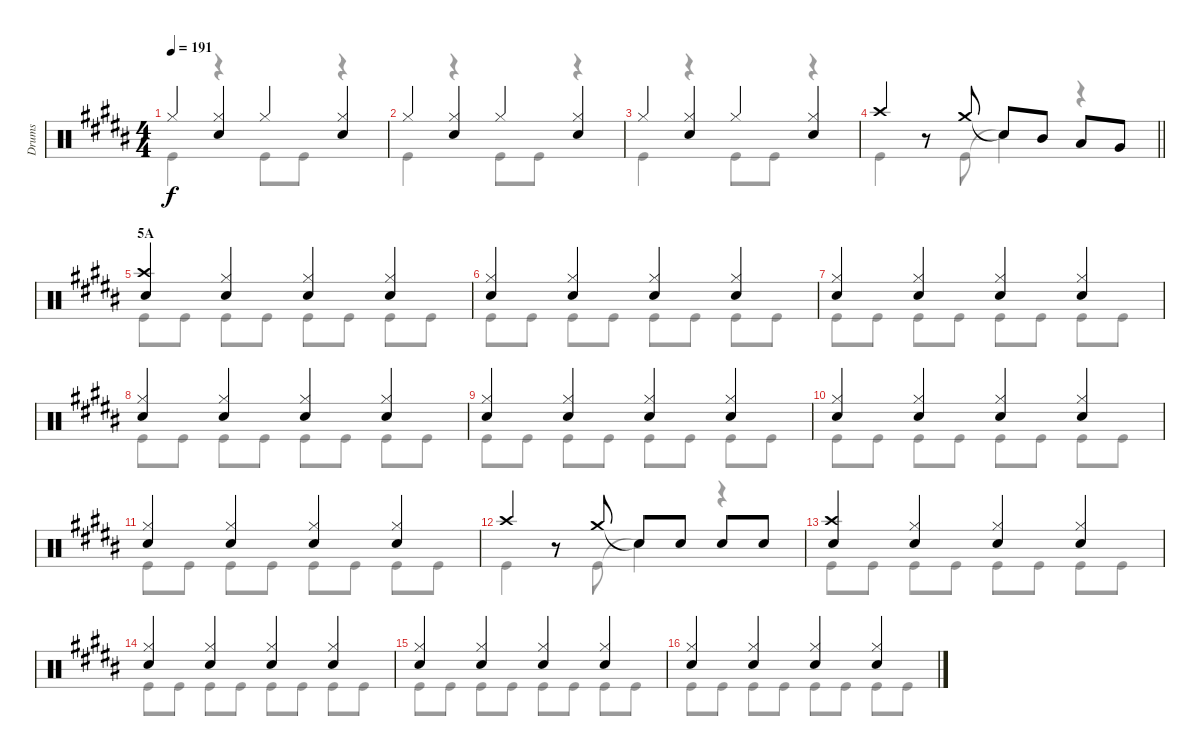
\track ("Drums" "Drums") {instrument percussion}
\staff {score}
\articulation defaults
\voice
\ts (4 4)
\tempo 191
\clef neutral
\ks b "Hi-Hat (closed)".4{dy f}
("Hi-Hat (closed)" "Snare (hit) 2").4 "Hi-Hat (closed)".4 ("Hi-Hat (closed)" "Snare (hit) 2").4 |
"Hi-Hat (closed)".4 ("Hi-Hat (closed)" "Snare (hit) 2").4 "Hi-Hat (closed)".4 ("Hi-Hat (closed)" "Snare (hit) 2").4 |
"Hi-Hat (closed)".4 ("Hi-Hat (closed)" "Snare (hit) 2").4 "Hi-Hat (closed)".4 ("Hi-Hat (closed)" "Snare (hit) 2").4 |
\barLineRight lightlight "Crash high (hit)".4
r.8 "Crash medium (hit)".8 "Snare (hit)"{t}.8 "Mid Tom (hit)".8 "Low Tom (hit)".8 "Very Low Tom (hit)".8 |
\section ("" "5A")
("Crash high (hit)" "Snare (hit) 2").4 ("Hi-Hat (closed)" "Snare (hit) 2").4 ("Hi-Hat (closed)" "Snare (hit) 2").4 ("Hi-Hat (closed)" "Snare (hit) 2").4 |
("Hi-Hat (closed)" "Snare (hit) 2").4 ("Hi-Hat (closed)" "Snare (hit) 2").4 ("Hi-Hat (closed)" "Snare (hit) 2").4 ("Hi-Hat (closed)" "Snare (hit) 2").4 |
("Hi-Hat (closed)" "Snare (hit) 2").4 ("Hi-Hat (closed)" "Snare (hit) 2").4 ("Hi-Hat (closed)" "Snare (hit) 2").4 ("Hi-Hat (closed)" "Snare (hit) 2").4 |
("Hi-Hat (closed)" "Snare (hit) 2").4 ("Hi-Hat (closed)" "Snare (hit) 2").4 ("Hi-Hat (closed)" "Snare (hit) 2").4 ("Hi-Hat (closed)" "Snare (hit) 2").4 |
("Hi-Hat (closed)" "Snare (hit) 2").4 ("Hi-Hat (closed)" "Snare (hit) 2").4 ("Hi-Hat (closed)" "Snare (hit) 2").4 ("Hi-Hat (closed)" "Snare (hit) 2").4 |
("Hi-Hat (closed)" "Snare (hit) 2").4 ("Hi-Hat (closed)" "Snare (hit) 2").4 ("Hi-Hat (closed)" "Snare (hit) 2").4 ("Hi-Hat (closed)" "Snare (hit) 2").4 |
("Hi-Hat (closed)" "Snare (hit) 2").4 ("Hi-Hat (closed)" "Snare (hit) 2").4 ("Hi-Hat (closed)" "Snare (hit) 2").4 ("Hi-Hat (closed)" "Snare (hit) 2").4 |
"Crash high (hit)".4 r.8 "Crash medium (hit)".8 "Snare (hit)"{t}.8 "Snare (hit) 2".8 "Snare (hit) 2".8 "Snare (hit) 2".8 |
("Crash high (hit)" "Snare (hit) 2").4 ("Hi-Hat (closed)" "Snare (hit) 2").4 ("Hi-Hat (closed)" "Snare (hit) 2").4 ("Hi-Hat (closed)" "Snare (hit) 2").4 |
("Hi-Hat (closed)" "Snare (hit) 2").4 ("Hi-Hat (closed)" "Snare (hit) 2").4 ("Hi-Hat (closed)" "Snare (hit) 2").4 ("Hi-Hat (closed)" "Snare (hit) 2").4 |
("Hi-Hat (closed)" "Snare (hit) 2").4 ("Hi-Hat (closed)" "Snare (hit) 2").4 ("Hi-Hat (closed)" "Snare (hit) 2").4 ("Hi-Hat (closed)" "Snare (hit) 2").4 |
("Hi-Hat (closed)" "Snare (hit) 2").4 ("Hi-Hat (closed)" "Snare (hit) 2").4 ("Hi-Hat (closed)" "Snare (hit) 2").4 ("Hi-Hat (closed)" "Snare (hit) 2").4
\voice
\clef neutral
\ottava regular
\simile none
\ks b "Kick (hit)".4{dy f}
r.4 "Kick (hit)".8 "Kick (hit)".8 r.4 |
"Kick (hit)".4 r.4 "Kick (hit)".8 "Kick (hit)".8 r.4 |
"Kick (hit)".4 r.4 "Kick (hit)".8 "Kick (hit)".8 r.4 |
\barLineRight lightlight "Kick (hit)".4
r.8 "Kick (hit)".8 "Snare (hit)"{t}.4 r.4 |
"Kick (hit)".8 "Kick (hit)".8 "Kick (hit)".8 "Kick (hit)".8 "Kick (hit)".8 "Kick (hit)".8 "Kick (hit)".8 "Kick (hit)".8 |
"Kick (hit)".8 "Kick (hit)".8 "Kick (hit)".8 "Kick (hit)".8 "Kick (hit)".8 "Kick (hit)".8 "Kick (hit)".8 "Kick (hit)".8 |
"Kick (hit)".8 "Kick (hit)".8 "Kick (hit)".8 "Kick (hit)".8 "Kick (hit)".8 "Kick (hit)".8 "Kick (hit)".8 "Kick (hit)".8 |
"Kick (hit)".8 "Kick (hit)".8 "Kick (hit)".8 "Kick (hit)".8 "Kick (hit)".8 "Kick (hit)".8 "Kick (hit)".8 "Kick (hit)".8 |
"Kick (hit)".8 "Kick (hit)".8 "Kick (hit)".8 "Kick (hit)".8 "Kick (hit)".8 "Kick (hit)".8 "Kick (hit)".8 "Kick (hit)".8 |
"Kick (hit)".8 "Kick (hit)".8 "Kick (hit)".8 "Kick (hit)".8 "Kick (hit)".8 "Kick (hit)".8 "Kick (hit)".8 "Kick (hit)".8 |
"Kick (hit)".8 "Kick (hit)".8 "Kick (hit)".8 "Kick (hit)".8 "Kick (hit)".8 "Kick (hit)".8 "Kick (hit)".8 "Kick (hit)".8 |
"Kick (hit)".4 r.8 "Kick (hit)".8 "Snare (hit)"{t}.4 r.4 |
"Kick (hit)".8 "Kick (hit)".8 "Kick (hit)".8 "Kick (hit)".8 "Kick (hit)".8 "Kick (hit)".8 "Kick (hit)".8 "Kick (hit)".8 |
"Kick (hit)".8 "Kick (hit)".8 "Kick (hit)".8 "Kick (hit)".8 "Kick (hit)".8 "Kick (hit)".8 "Kick (hit)".8 "Kick (hit)".8 |
"Kick (hit)".8 "Kick (hit)".8 "Kick (hit)".8 "Kick (hit)".8 "Kick (hit)".8 "Kick (hit)".8 "Kick (hit)".8 "Kick (hit)".8 |
"Kick (hit)".8 "Kick (hit)".8 "Kick (hit)".8 "Kick (hit)".8 "Kick (hit)".8 "Kick (hit)".8 "Kick (hit)".8 "Kick (hit)".8
